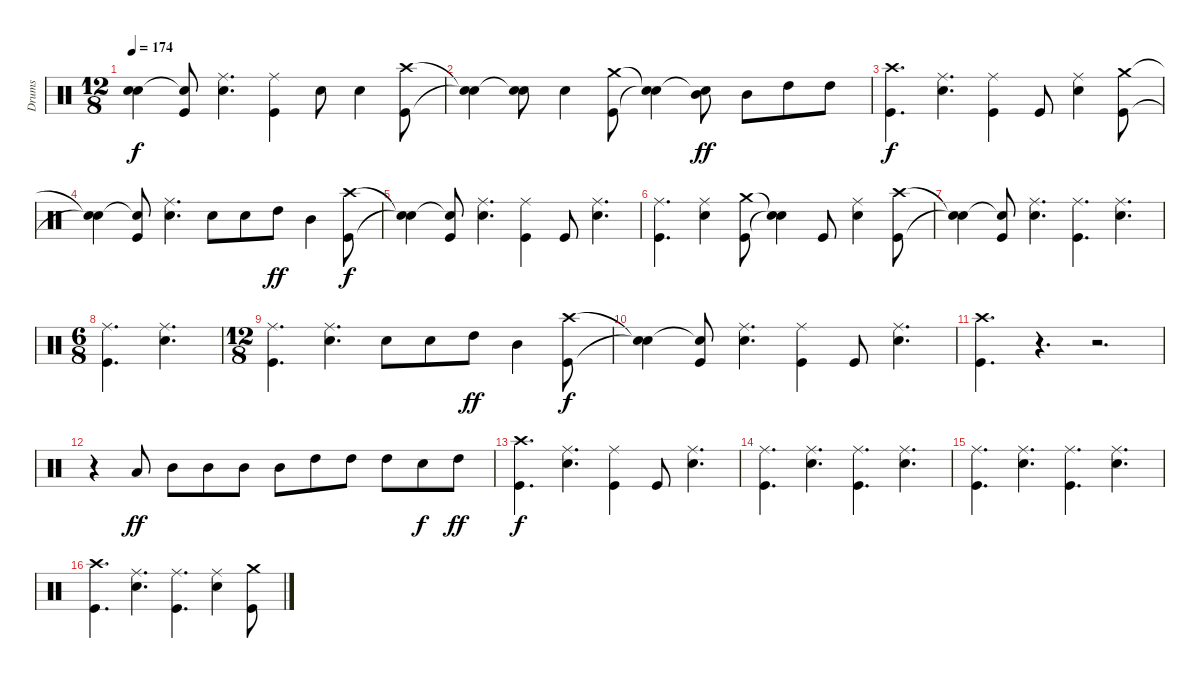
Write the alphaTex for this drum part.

\track ("Drums" "Drums") {instrument percussion}
\staff {score}
\articulation defaults
\ts (12 8)
\tempo 174
\clef neutral
\ks c
("Snare (hit)"{t} "Snare (hit)"{t}).4{dy f} ("Snare (hit)"{t} "Kick (hit)").8 ("Ride (middle)" "Snare (hit) 2").4{d} ("Ride (middle)" "Kick (hit)").4 "Snare (hit) 2".8 "Snare (hit) 2".4 ("Crash high (hit)" "Kick (hit)").8 |
("Snare (hit)"{t} "Snare (hit)"{t}).4 ("Snare (hit)"{t} "Snare (hit) 2").8 "Snare (hit) 2".4 ("Crash medium (hit)" "Kick (hit)").8 ("Snare (hit)"{t} "Snare (hit)"{t}).4 ("Snare (hit)"{t} "Mid Tom (hit)").8{dy ff} "Mid Tom (hit)".8 "High Tom (hit)".8 "High Tom (hit)".8 |
("Crash high (hit)" "Kick (hit)").4{d dy f} ("Ride (middle)" "Snare (hit) 2").4{d} ("Ride (middle)" "Kick (hit)").4 "Kick (hit)".8 ("Ride (middle)" "Snare (hit) 2").4 ("Crash medium (hit)" "Kick (hit)").8 |
("Snare (hit)"{t} "Snare (hit)"{t}).4 ("Snare (hit)"{t} "Kick (hit)").8 ("Ride (middle)" "Snare (hit) 2").4{d} "Snare (hit) 2".8 "Snare (hit) 2".8 "High Tom (hit)".8{dy ff} "Mid Tom (hit)".4 ("Crash high (hit)" "Kick (hit)").8{dy f} |
("Snare (hit)"{t} "Snare (hit)"{t}).4 ("Snare (hit)"{t} "Kick (hit)").8 ("Ride (middle)" "Snare (hit) 2").4{d} ("Ride (middle)" "Kick (hit)").4 "Kick (hit)".8 ("Ride (middle)" "Snare (hit) 2").4{d} |
("Ride (middle)" "Kick (hit)").4{d} ("Ride (middle)" "Snare (hit) 2").4 ("Crash medium (hit)" "Kick (hit)").8 ("Snare (hit)"{t} "Snare (hit)"{t}).4 "Kick (hit)".8 ("Ride (middle)" "Snare (hit) 2").4 ("Crash high (hit)" "Kick (hit)").8 |
("Snare (hit)"{t} "Snare (hit)"{t}).4 ("Snare (hit)"{t} "Kick (hit)").8 ("Ride (middle)" "Snare (hit) 2").4{d} ("Ride (middle)" "Kick (hit)").4{d} ("Ride (middle)" "Snare (hit) 2").4{d} |
\ts (6 8)
("Ride (middle)" "Kick (hit)").4{d} ("Ride (middle)" "Snare (hit) 2").4{d} |
\ts (12 8)
("Ride (middle)" "Kick (hit)").4{d} ("Ride (middle)" "Snare (hit) 2").4{d} "Snare (hit) 2".8 "Snare (hit) 2".8 "High Tom (hit)".8{dy ff} "Mid Tom (hit)".4 ("Crash high (hit)" "Kick (hit)").8{dy f} |
("Snare (hit)"{t} "Snare (hit)"{t}).4 ("Snare (hit)"{t} "Kick (hit)").8 ("Ride (middle)" "Snare (hit) 2").4{d} ("Ride (middle)" "Kick (hit)").4 "Kick (hit)".8 ("Ride (middle)" "Snare (hit) 2").4{d} |
("Crash high (hit)" "Kick (hit)").4{d} r.4{d} r.2{d} |
r.4 "Low Tom (hit)".8{dy ff} "Mid Tom (hit)".8 "Mid Tom (hit)".8 "Mid Tom (hit)".8 "Mid Tom (hit)".8 "High Tom (hit)".8 "High Tom (hit)".8 "High Tom (hit)".8 "Snare (hit) 2".8{dy f} "High Tom (hit)".8{dy ff} |
("Crash high (hit)" "Kick (hit)").4{d dy f} ("Ride (middle)" "Snare (hit) 2").4{d} ("Ride (middle)" "Kick (hit)").4 "Kick (hit)".8 ("Ride (middle)" "Snare (hit) 2").4{d} |
("Ride (middle)" "Kick (hit)").4{d} ("Ride (middle)" "Snare (hit) 2").4{d} ("Ride (middle)" "Kick (hit)").4{d} ("Ride (middle)" "Snare (hit) 2").4{d} |
("Ride (middle)" "Kick (hit)").4{d} ("Ride (middle)" "Snare (hit) 2").4{d} ("Ride (middle)" "Kick (hit)").4{d} ("Ride (middle)" "Snare (hit) 2").4{d} |
("Crash high (hit)" "Kick (hit)").4{d} ("Ride (middle)" "Snare (hit) 2").4{d} ("Ride (middle)" "Kick (hit)").4{d} ("Ride (middle)" "Snare (hit) 2").4 ("Crash medium (hit)" "Kick (hit)").8
